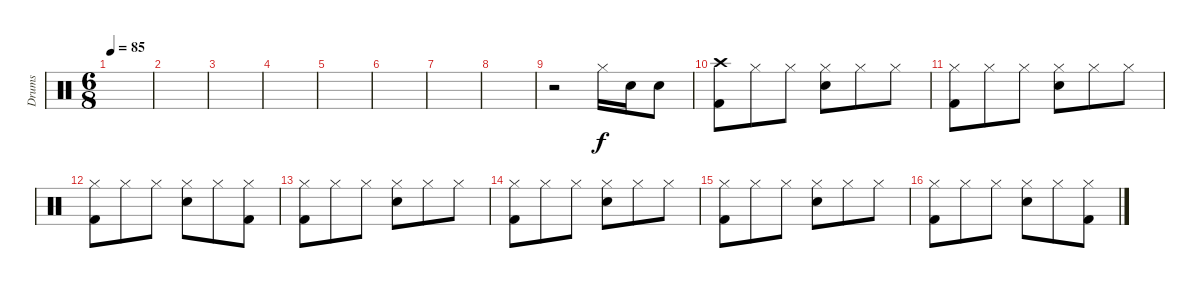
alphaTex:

\track ("Drums" "Drums") {instrument percussion}
\staff {score}
\articulation defaults
\ts (6 8)
\tempo 85
\clef neutral
\ks c
|
|
|
|
|
|
|
|
r.2 "Hi-Hat (closed)".16 "Snare (hit) 2".16 "Snare (hit) 2".8 |
("Crash high (hit)" "Kick (hit) 2").8 "Hi-Hat (closed)".8 "Hi-Hat (closed)".8 ("Hi-Hat (closed)" "Snare (hit) 2").8 "Hi-Hat (closed)".8 "Hi-Hat (closed)".8 |
("Hi-Hat (closed)" "Kick (hit) 2").8 "Hi-Hat (closed)".8 "Hi-Hat (closed)".8 ("Hi-Hat (closed)" "Snare (hit) 2").8 "Hi-Hat (closed)".8 "Hi-Hat (closed)".8 |
("Hi-Hat (closed)" "Kick (hit) 2").8 "Hi-Hat (closed)".8 "Hi-Hat (closed)".8 ("Hi-Hat (closed)" "Snare (hit) 2").8 "Hi-Hat (closed)".8 ("Hi-Hat (closed)" "Kick (hit) 2").8 |
("Hi-Hat (closed)" "Kick (hit) 2").8 "Hi-Hat (closed)".8 "Hi-Hat (closed)".8 ("Hi-Hat (closed)" "Snare (hit) 2").8 "Hi-Hat (closed)".8 "Hi-Hat (closed)".8 |
("Hi-Hat (closed)" "Kick (hit) 2").8 "Hi-Hat (closed)".8 "Hi-Hat (closed)".8 ("Hi-Hat (closed)" "Snare (hit) 2").8 "Hi-Hat (closed)".8 "Hi-Hat (closed)".8 |
("Hi-Hat (closed)" "Kick (hit) 2").8 "Hi-Hat (closed)".8 "Hi-Hat (closed)".8 ("Hi-Hat (closed)" "Snare (hit) 2").8 "Hi-Hat (closed)".8 "Hi-Hat (closed)".8 |
("Hi-Hat (closed)" "Kick (hit) 2").8 "Hi-Hat (closed)".8 "Hi-Hat (closed)".8 ("Hi-Hat (closed)" "Snare (hit) 2").8 "Hi-Hat (closed)".8 ("Hi-Hat (closed)" "Kick (hit) 2").8
